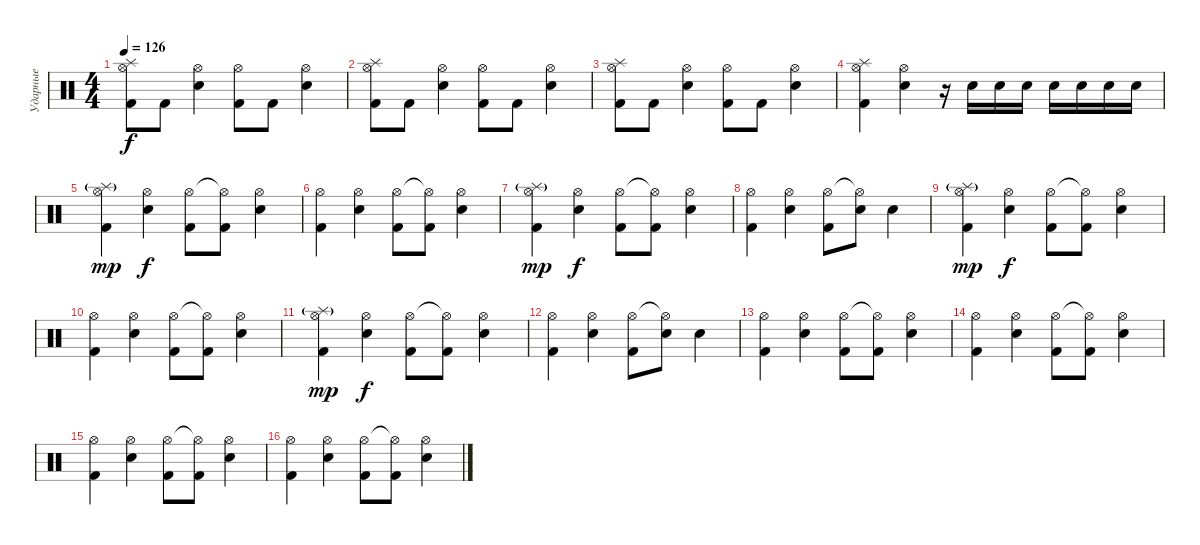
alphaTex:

\track ("Ударные" "Ударные") {instrument percussion}
\staff {score}
\articulation defaults
\ts (4 4)
\tempo 126
\clef neutral
\ks c
("Kick (hit) 2" "Hi-Hat (open)" "Splash (hit)").8{dy f} "Kick (hit) 2".8 ("Electric Snare (hit)" "Hi-Hat (open)").4 ("Kick (hit) 2" "Hi-Hat (open)").8 "Kick (hit) 2".8 ("Electric Snare (hit)" "Hi-Hat (open)").4 |
("Kick (hit) 2" "Hi-Hat (open)" "Splash (hit)").8 "Kick (hit) 2".8 ("Electric Snare (hit)" "Hi-Hat (open)").4 ("Kick (hit) 2" "Hi-Hat (open)").8 "Kick (hit) 2".8 ("Electric Snare (hit)" "Hi-Hat (open)").4 |
("Kick (hit) 2" "Hi-Hat (open)" "Splash (hit)").8 "Kick (hit) 2".8 ("Electric Snare (hit)" "Hi-Hat (open)").4 ("Kick (hit) 2" "Hi-Hat (open)").8 "Kick (hit) 2".8 ("Electric Snare (hit)" "Hi-Hat (open)").4 |
("Kick (hit) 2" "Hi-Hat (open)" "Splash (hit)").4 ("Electric Snare (hit)" "Hi-Hat (open)").4 r.16 "Electric Snare (hit)".16 "Electric Snare (hit)".16 "Electric Snare (hit)".16 "Electric Snare (hit)".16 "Electric Snare (hit)".16 "Electric Snare (hit)".16 "Electric Snare (hit)".16 |
("Kick (hit) 2" "Hi-Hat (open)" "Splash (hit)"{g}).4{dy mp} ("Electric Snare (hit)" "Hi-Hat (open)").4{dy f} ("Kick (hit) 2" "Hi-Hat (open)").8 ("Kick (hit) 2" "Hi-Hat (open)"{t}).8 ("Electric Snare (hit)" "Hi-Hat (open)").4 |
("Kick (hit) 2" "Hi-Hat (open)").4 ("Electric Snare (hit)" "Hi-Hat (open)").4 ("Kick (hit) 2" "Hi-Hat (open)").8 ("Kick (hit) 2" "Hi-Hat (open)"{t}).8 ("Electric Snare (hit)" "Hi-Hat (open)").4 |
("Kick (hit) 2" "Hi-Hat (open)" "Splash (hit)"{g}).4{dy mp} ("Electric Snare (hit)" "Hi-Hat (open)").4{dy f} ("Kick (hit) 2" "Hi-Hat (open)").8 ("Kick (hit) 2" "Hi-Hat (open)"{t}).8 ("Electric Snare (hit)" "Hi-Hat (open)").4 |
("Kick (hit) 2" "Hi-Hat (open)").4 ("Electric Snare (hit)" "Hi-Hat (open)").4 ("Kick (hit) 2" "Hi-Hat (open)").8 ("Electric Snare (hit)" "Hi-Hat (open)"{t}).8 "Electric Snare (hit)".4 |
("Kick (hit) 2" "Hi-Hat (open)" "Splash (hit)"{g}).4{dy mp} ("Electric Snare (hit)" "Hi-Hat (open)").4{dy f} ("Kick (hit) 2" "Hi-Hat (open)").8 ("Kick (hit) 2" "Hi-Hat (open)"{t}).8 ("Electric Snare (hit)" "Hi-Hat (open)").4 |
("Kick (hit) 2" "Hi-Hat (open)").4 ("Electric Snare (hit)" "Hi-Hat (open)").4 ("Kick (hit) 2" "Hi-Hat (open)").8 ("Kick (hit) 2" "Hi-Hat (open)"{t}).8 ("Electric Snare (hit)" "Hi-Hat (open)").4 |
("Kick (hit) 2" "Hi-Hat (open)" "Splash (hit)"{g}).4{dy mp} ("Electric Snare (hit)" "Hi-Hat (open)").4{dy f} ("Kick (hit) 2" "Hi-Hat (open)").8 ("Kick (hit) 2" "Hi-Hat (open)"{t}).8 ("Electric Snare (hit)" "Hi-Hat (open)").4 |
("Kick (hit) 2" "Hi-Hat (open)").4 ("Electric Snare (hit)" "Hi-Hat (open)").4 ("Kick (hit) 2" "Hi-Hat (open)").8 ("Electric Snare (hit)" "Hi-Hat (open)"{t}).8 "Electric Snare (hit)".4 |
("Kick (hit) 2" "Hi-Hat (open)").4 ("Electric Snare (hit)" "Hi-Hat (open)").4 ("Kick (hit) 2" "Hi-Hat (open)").8 ("Kick (hit) 2" "Hi-Hat (open)"{t}).8 ("Electric Snare (hit)" "Hi-Hat (open)").4 |
("Kick (hit) 2" "Hi-Hat (open)").4 ("Electric Snare (hit)" "Hi-Hat (open)").4 ("Kick (hit) 2" "Hi-Hat (open)").8 ("Kick (hit) 2" "Hi-Hat (open)"{t}).8 ("Electric Snare (hit)" "Hi-Hat (open)").4 |
("Kick (hit) 2" "Hi-Hat (open)").4 ("Electric Snare (hit)" "Hi-Hat (open)").4 ("Kick (hit) 2" "Hi-Hat (open)").8 ("Kick (hit) 2" "Hi-Hat (open)"{t}).8 ("Electric Snare (hit)" "Hi-Hat (open)").4 |
("Kick (hit) 2" "Hi-Hat (open)").4 ("Electric Snare (hit)" "Hi-Hat (open)").4 ("Kick (hit) 2" "Hi-Hat (open)").8 ("Kick (hit) 2" "Hi-Hat (open)"{t}).8 ("Electric Snare (hit)" "Hi-Hat (open)").4
